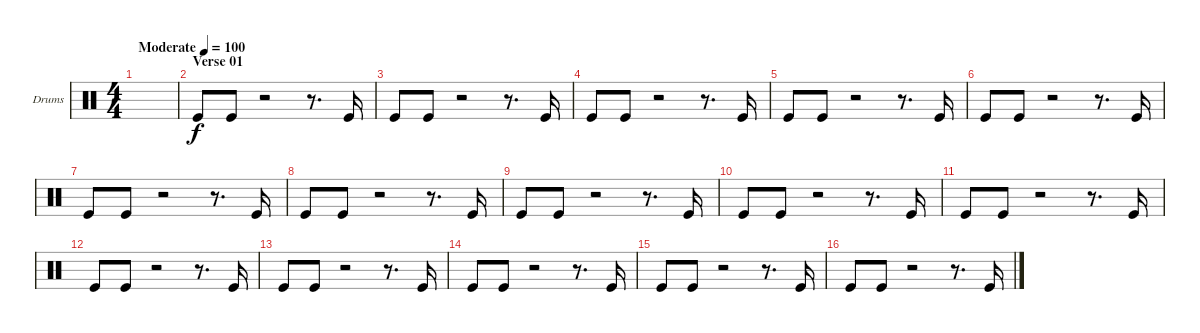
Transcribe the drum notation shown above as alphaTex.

\bracketExtendMode groupsimilarinstruments
\firstSystemTrackNameOrientation horizontal
\otherSystemsTrackNameOrientation horizontal
\track ("Drums overdubbed" "Drums") {instrument percussion}
\staff {score}
\articulation defaults
\ts (4 4)
\tempo (100 "Moderate")
\clef neutral
\ks c
|
\section ("" "Verse 01")
"Kick (hit)".8 "Kick (hit)".8 r.2 r.8{d} "Kick (hit)".16 |
"Kick (hit)".8 "Kick (hit)".8 r.2 r.8{d} "Kick (hit)".16 |
"Kick (hit)".8 "Kick (hit)".8 r.2 r.8{d} "Kick (hit)".16 |
"Kick (hit)".8 "Kick (hit)".8 r.2 r.8{d} "Kick (hit)".16 |
"Kick (hit)".8 "Kick (hit)".8 r.2 r.8{d} "Kick (hit)".16 |
"Kick (hit)".8 "Kick (hit)".8 r.2 r.8{d} "Kick (hit)".16 |
"Kick (hit)".8 "Kick (hit)".8 r.2 r.8{d} "Kick (hit)".16 |
"Kick (hit)".8 "Kick (hit)".8 r.2 r.8{d} "Kick (hit)".16 |
"Kick (hit)".8 "Kick (hit)".8 r.2 r.8{d} "Kick (hit)".16 |
"Kick (hit)".8 "Kick (hit)".8 r.2 r.8{d} "Kick (hit)".16 |
"Kick (hit)".8 "Kick (hit)".8 r.2 r.8{d} "Kick (hit)".16 |
"Kick (hit)".8 "Kick (hit)".8 r.2 r.8{d} "Kick (hit)".16 |
"Kick (hit)".8 "Kick (hit)".8 r.2 r.8{d} "Kick (hit)".16 |
"Kick (hit)".8 "Kick (hit)".8 r.2 r.8{d} "Kick (hit)".16 |
"Kick (hit)".8 "Kick (hit)".8 r.2 r.8{d} "Kick (hit)".16
